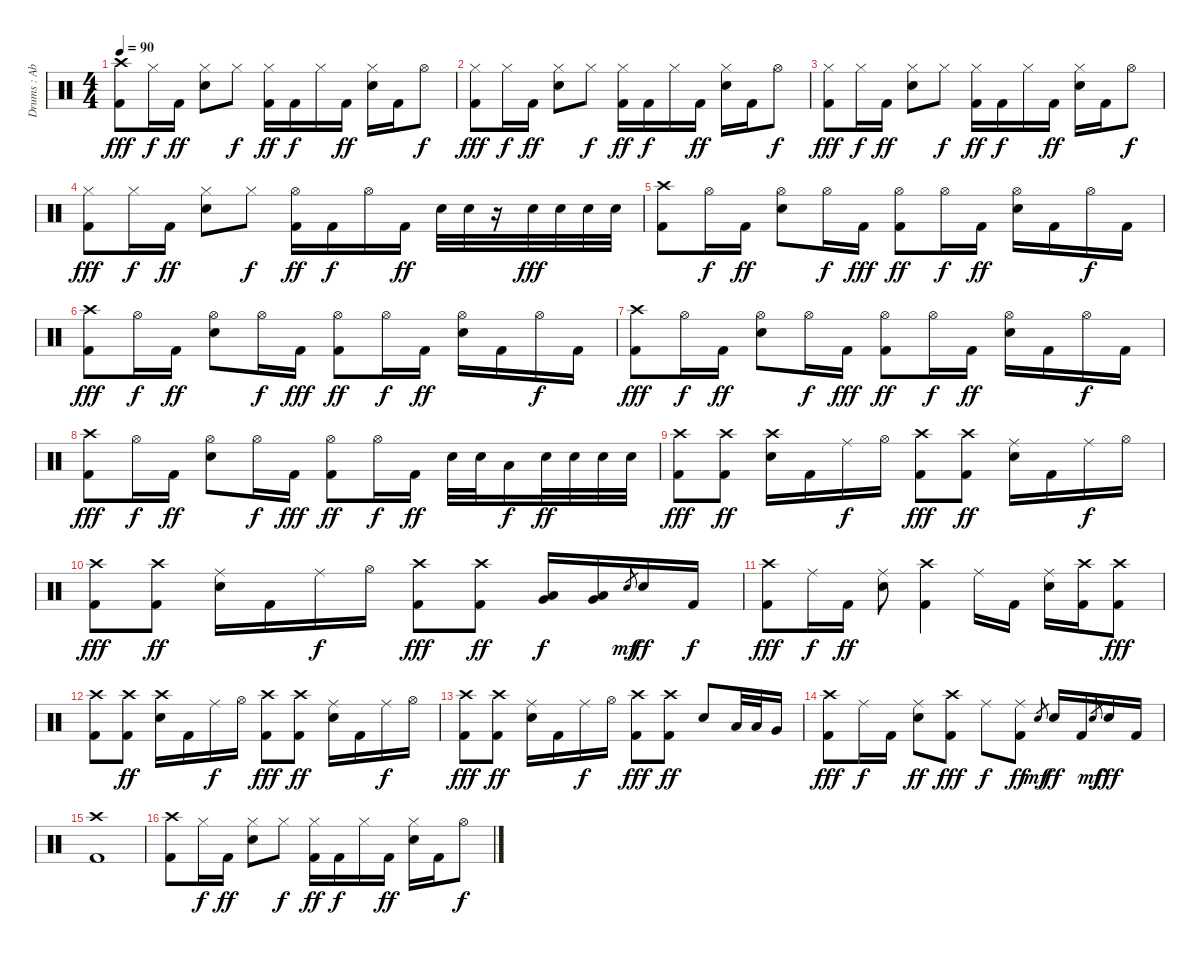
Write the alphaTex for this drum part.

\track ("Drums : Abe Cunnigham" "Drums : Ab") {instrument percussion}
\staff {score}
\articulation defaults
\ts (4 4)
\tempo 90
\clef neutral
\ks c
("Crash high (hit)" "Kick (hit) 2").8{dy fff} "Hi-Hat (closed)".16{dy f} "Kick (hit) 2".16{dy ff} ("Hi-Hat (closed)" "Electric Snare (hit)").8 "Hi-Hat (closed)".8{dy f} ("Hi-Hat (closed)" "Kick (hit) 2").16{dy ff} "Kick (hit) 2".16{dy f} "Hi-Hat (closed)".16 "Kick (hit) 2".16{dy ff} ("Hi-Hat (closed)" "Electric Snare (hit)").16 "Kick (hit) 2".16 "Hi-Hat (open)".8{dy f} |
("Hi-Hat (closed)" "Kick (hit) 2").8{dy fff} "Hi-Hat (closed)".16{dy f} "Kick (hit) 2".16{dy ff} ("Hi-Hat (closed)" "Electric Snare (hit)").8 "Hi-Hat (closed)".8{dy f} ("Hi-Hat (closed)" "Kick (hit) 2").16{dy ff} "Kick (hit) 2".16{dy f} "Hi-Hat (closed)".16 "Kick (hit) 2".16{dy ff} ("Hi-Hat (closed)" "Electric Snare (hit)").16 "Kick (hit) 2".16 "Hi-Hat (open)".8{dy f} |
("Hi-Hat (closed)" "Kick (hit) 2").8{dy fff} "Hi-Hat (closed)".16{dy f} "Kick (hit) 2".16{dy ff} ("Hi-Hat (closed)" "Electric Snare (hit)").8 "Hi-Hat (closed)".8{dy f} ("Hi-Hat (closed)" "Kick (hit) 2").16{dy ff} "Kick (hit) 2".16{dy f} "Hi-Hat (closed)".16 "Kick (hit) 2".16{dy ff} ("Hi-Hat (closed)" "Electric Snare (hit)").16 "Kick (hit) 2".16 "Hi-Hat (open)".8{dy f} |
("Hi-Hat (closed)" "Kick (hit) 2").8{dy fff} "Hi-Hat (closed)".16{dy f} "Kick (hit) 2".16{dy ff} ("Hi-Hat (closed)" "Electric Snare (hit)").8 "Hi-Hat (closed)".8{dy f} ("Hi-Hat (open)" "Kick (hit) 2").16{dy ff} "Kick (hit) 2".16{dy f} "Hi-Hat (open)".16 "Kick (hit) 2".16{dy ff} "Electric Snare (hit)".32 "Electric Snare (hit)".32 r.16 "Electric Snare (hit)".32{dy fff} "Electric Snare (hit)".32 "Electric Snare (hit)".32 "Electric Snare (hit)".32 |
("Crash high (hit)" "Kick (hit) 2").8 "Hi-Hat (open)".16{dy f} "Kick (hit) 2".16{dy ff} ("Hi-Hat (open)" "Electric Snare (hit)").8 "Hi-Hat (open)".16{dy f} "Kick (hit) 2".16{dy fff} ("Hi-Hat (open)" "Kick (hit) 2").8{dy ff} "Hi-Hat (open)".16{dy f} "Kick (hit) 2".16{dy ff} ("Hi-Hat (open)" "Electric Snare (hit)").16 "Kick (hit) 2".16 "Hi-Hat (open)".16{dy f} "Kick (hit) 2".16 |
("Crash high (hit)" "Kick (hit) 2").8{dy fff} "Hi-Hat (open)".16{dy f} "Kick (hit) 2".16{dy ff} ("Hi-Hat (open)" "Electric Snare (hit)").8 "Hi-Hat (open)".16{dy f} "Kick (hit) 2".16{dy fff} ("Hi-Hat (open)" "Kick (hit) 2").8{dy ff} "Hi-Hat (open)".16{dy f} "Kick (hit) 2".16{dy ff} ("Hi-Hat (open)" "Electric Snare (hit)").16 "Kick (hit) 2".16 "Hi-Hat (open)".16{dy f} "Kick (hit) 2".16 |
("Crash high (hit)" "Kick (hit) 2").8{dy fff} "Hi-Hat (open)".16{dy f} "Kick (hit) 2".16{dy ff} ("Hi-Hat (open)" "Electric Snare (hit)").8 "Hi-Hat (open)".16{dy f} "Kick (hit) 2".16{dy fff} ("Hi-Hat (open)" "Kick (hit) 2").8{dy ff} "Hi-Hat (open)".16{dy f} "Kick (hit) 2".16{dy ff} ("Hi-Hat (open)" "Electric Snare (hit)").16 "Kick (hit) 2".16 "Hi-Hat (open)".16{dy f} "Kick (hit) 2".16 |
("Crash high (hit)" "Kick (hit) 2").8{dy fff} "Hi-Hat (open)".16{dy f} "Kick (hit) 2".16{dy ff} ("Hi-Hat (open)" "Electric Snare (hit)").8 "Hi-Hat (open)".16{dy f} "Kick (hit) 2".16{dy fff} ("Hi-Hat (open)" "Kick (hit) 2").8{dy ff} "Hi-Hat (open)".16{dy f} "Kick (hit) 2".16{dy ff} "Electric Snare (hit)".32 "Electric Snare (hit)".32 "Low Tom (hit)".16{dy f} "Electric Snare (hit)".32{dy ff} "Electric Snare (hit)".32 "Electric Snare (hit)".32 "Electric Snare (hit)".32 |
("Crash high (hit)" "Kick (hit) 2").8{dy fff} ("Crash high (hit)" "Kick (hit) 2").8{dy ff} ("Crash high (hit)" "Electric Snare (hit)").16 "Kick (hit) 2".16 "Ride (middle)".16{dy f} "Hi-Hat (open)".16 ("Crash high (hit)" "Kick (hit) 2").8{dy fff} ("Crash high (hit)" "Kick (hit) 2").8{dy ff} ("Ride (middle)" "Electric Snare (hit)").16 "Kick (hit) 2".16 "Ride (middle)".16{dy f} "Hi-Hat (open)".16 |
("Crash high (hit)" "Kick (hit) 2").8{dy fff} ("Crash high (hit)" "Kick (hit) 2").8{dy ff} ("Ride (middle)" "Electric Snare (hit)").16 "Kick (hit) 2".16 "Ride (middle)".16{dy f} "Hi-Hat (open)".16 ("Crash high (hit)" "Kick (hit) 2").8{dy fff} ("Crash high (hit)" "Kick (hit) 2").8{dy ff} ("Low Tom (hit)" "Very Low Tom (hit)").16{dy f} ("Low Tom (hit)" "Very Low Tom (hit)").16 "Electric Snare (hit)".8{gr dy mf} "Electric Snare (hit)".16{dy ff} "Kick (hit) 2".16{dy f} |
("Crash high (hit)" "Kick (hit) 2").8{dy fff} "Ride (middle)".16{dy f} "Kick (hit) 2".16{dy ff} ("Ride (middle)" "Electric Snare (hit)").8 ("Crash high (hit)" "Kick (hit) 2").4 "Ride (middle)".16 "Kick (hit) 2".16 ("Ride (middle)" "Electric Snare (hit)").16 ("Crash high (hit)" "Kick (hit) 2").16 ("Crash high (hit)" "Kick (hit) 2").8{dy fff} |
("Crash high (hit)" "Kick (hit) 2").8 ("Crash high (hit)" "Kick (hit) 2").8{dy ff} ("Crash high (hit)" "Electric Snare (hit)").16 "Kick (hit) 2".16 "Ride (middle)".16{dy f} "Hi-Hat (open)".16 ("Crash high (hit)" "Kick (hit) 2").8{dy fff} ("Crash high (hit)" "Kick (hit) 2").8{dy ff} ("Ride (middle)" "Electric Snare (hit)").16 "Kick (hit) 2".16 "Ride (middle)".16{dy f} "Hi-Hat (open)".16 |
("Crash high (hit)" "Kick (hit) 2").8{dy fff} ("Crash high (hit)" "Kick (hit) 2").8{dy ff} ("Ride (middle)" "Electric Snare (hit)").16 "Kick (hit) 2".16 "Ride (middle)".16{dy f} "Hi-Hat (open)".16 ("Crash high (hit)" "Kick (hit) 2").8{dy fff} ("Crash high (hit)" "Kick (hit) 2").8{dy ff} "Electric Snare (hit)".8 "Low Tom (hit)".32 "Low Tom (hit)".32 "Very Low Tom (hit)".16 |
("Crash high (hit)" "Kick (hit) 2").8{dy fff} "Ride (middle)".16{dy f} "Kick (hit) 2".16 ("Ride (middle)" "Electric Snare (hit)").8{dy ff} ("Crash high (hit)" "Kick (hit) 2").8{dy fff} "Ride (middle)".8{dy f} ("Ride (middle)" "Kick (hit) 2").8{dy ff} "Electric Snare (hit)".8{gr dy mf} "Electric Snare (hit)".16{dy ff} "Kick (hit) 2".16 "Electric Snare (hit)".8{gr dy mf} "Electric Snare (hit)".16{dy fff} "Kick (hit) 2".16 |
("Crash high (hit)" "Kick (hit) 2").1 |
("Crash high (hit)" "Kick (hit) 2").8 "Hi-Hat (closed)".16{dy f} "Kick (hit) 2".16{dy ff} ("Hi-Hat (closed)" "Electric Snare (hit)").8 "Hi-Hat (closed)".8{dy f} ("Hi-Hat (closed)" "Kick (hit) 2").16{dy ff} "Kick (hit) 2".16{dy f} "Hi-Hat (closed)".16 "Kick (hit) 2".16{dy ff} ("Hi-Hat (closed)" "Electric Snare (hit)").16 "Kick (hit) 2".16 "Hi-Hat (open)".8{dy f}
